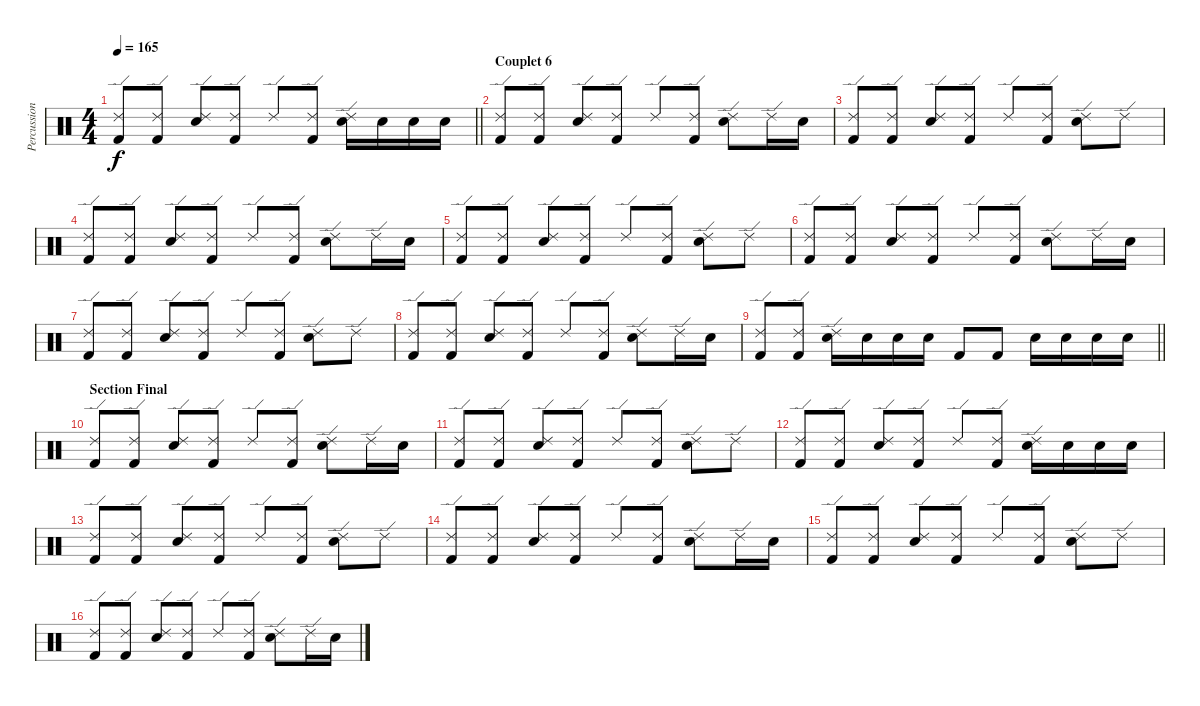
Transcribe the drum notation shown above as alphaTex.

\track ("Percussions" "Percussion") {instrument percussion}
\staff
\articulation defaults
\ts (4 4)
\tempo 165
\clef neutral
\barLineRight lightlight
\ks c
("Ride (edge) 2" "Kick (hit) 2").8{dy f} ("Ride (edge) 2" "Kick (hit) 2").8 ("Ride (edge) 2" "Electric Snare (hit)").8 ("Ride (edge) 2" "Kick (hit) 2").8 "Ride (edge) 2".8 ("Ride (edge) 2" "Kick (hit) 2").8 ("Ride (edge) 2" "Electric Snare (hit)").16 "Electric Snare (hit)".16 "Electric Snare (hit)".16 "Electric Snare (hit)".16 |
\section ("" "Couplet 6")
("Ride (edge) 2" "Kick (hit) 2").8 ("Ride (edge) 2" "Kick (hit) 2").8 ("Ride (edge) 2" "Electric Snare (hit)").8 ("Ride (edge) 2" "Kick (hit) 2").8 "Ride (edge) 2".8 ("Ride (edge) 2" "Kick (hit) 2").8 ("Ride (edge) 2" "Electric Snare (hit)").8 "Ride (edge) 2".16 "Electric Snare (hit)".16 |
("Ride (edge) 2" "Kick (hit) 2").8 ("Ride (edge) 2" "Kick (hit) 2").8 ("Ride (edge) 2" "Electric Snare (hit)").8 ("Ride (edge) 2" "Kick (hit) 2").8 "Ride (edge) 2".8 ("Ride (edge) 2" "Kick (hit) 2").8 ("Ride (edge) 2" "Electric Snare (hit)").8 "Ride (edge) 2".8 |
("Ride (edge) 2" "Kick (hit) 2").8 ("Ride (edge) 2" "Kick (hit) 2").8 ("Ride (edge) 2" "Electric Snare (hit)").8 ("Ride (edge) 2" "Kick (hit) 2").8 "Ride (edge) 2".8 ("Ride (edge) 2" "Kick (hit) 2").8 ("Ride (edge) 2" "Electric Snare (hit)").8 "Ride (edge) 2".16 "Electric Snare (hit)".16 |
("Ride (edge) 2" "Kick (hit) 2").8 ("Ride (edge) 2" "Kick (hit) 2").8 ("Ride (edge) 2" "Electric Snare (hit)").8 ("Ride (edge) 2" "Kick (hit) 2").8 "Ride (edge) 2".8 ("Ride (edge) 2" "Kick (hit) 2").8 ("Ride (edge) 2" "Electric Snare (hit)").8 "Ride (edge) 2".8 |
("Ride (edge) 2" "Kick (hit) 2").8 ("Ride (edge) 2" "Kick (hit) 2").8 ("Ride (edge) 2" "Electric Snare (hit)").8 ("Ride (edge) 2" "Kick (hit) 2").8 "Ride (edge) 2".8 ("Ride (edge) 2" "Kick (hit) 2").8 ("Ride (edge) 2" "Electric Snare (hit)").8 "Ride (edge) 2".16 "Electric Snare (hit)".16 |
("Ride (edge) 2" "Kick (hit) 2").8 ("Ride (edge) 2" "Kick (hit) 2").8 ("Ride (edge) 2" "Electric Snare (hit)").8 ("Ride (edge) 2" "Kick (hit) 2").8 "Ride (edge) 2".8 ("Ride (edge) 2" "Kick (hit) 2").8 ("Ride (edge) 2" "Electric Snare (hit)").8 "Ride (edge) 2".8 |
("Ride (edge) 2" "Kick (hit) 2").8 ("Ride (edge) 2" "Kick (hit) 2").8 ("Ride (edge) 2" "Electric Snare (hit)").8 ("Ride (edge) 2" "Kick (hit) 2").8 "Ride (edge) 2".8 ("Ride (edge) 2" "Kick (hit) 2").8 ("Ride (edge) 2" "Electric Snare (hit)").8 "Ride (edge) 2".16 "Electric Snare (hit)".16 |
\barLineRight lightlight
("Ride (edge) 2" "Kick (hit) 2").8 ("Ride (edge) 2" "Kick (hit) 2").8 ("Ride (edge) 2" "Electric Snare (hit)").16 "Electric Snare (hit)".16 "Electric Snare (hit)".16 "Electric Snare (hit)".16 "Kick (hit) 2".8 "Kick (hit) 2".8 "Electric Snare (hit)".16 "Electric Snare (hit)".16 "Electric Snare (hit)".16 "Electric Snare (hit)".16 |
\section ("" "Section Final")
("Ride (edge) 2" "Kick (hit) 2").8 ("Ride (edge) 2" "Kick (hit) 2").8 ("Ride (edge) 2" "Electric Snare (hit)").8 ("Ride (edge) 2" "Kick (hit) 2").8 "Ride (edge) 2".8 ("Ride (edge) 2" "Kick (hit) 2").8 ("Ride (edge) 2" "Electric Snare (hit)").8 "Ride (edge) 2".16 "Electric Snare (hit)".16 |
("Ride (edge) 2" "Kick (hit) 2").8 ("Ride (edge) 2" "Kick (hit) 2").8 ("Ride (edge) 2" "Electric Snare (hit)").8 ("Ride (edge) 2" "Kick (hit) 2").8 "Ride (edge) 2".8 ("Ride (edge) 2" "Kick (hit) 2").8 ("Ride (edge) 2" "Electric Snare (hit)").8 "Ride (edge) 2".8 |
("Ride (edge) 2" "Kick (hit) 2").8 ("Ride (edge) 2" "Kick (hit) 2").8 ("Ride (edge) 2" "Electric Snare (hit)").8 ("Ride (edge) 2" "Kick (hit) 2").8 "Ride (edge) 2".8 ("Ride (edge) 2" "Kick (hit) 2").8 ("Ride (edge) 2" "Electric Snare (hit)").16 "Electric Snare (hit)".16 "Electric Snare (hit)".16 "Electric Snare (hit)".16 |
("Ride (edge) 2" "Kick (hit) 2").8 ("Ride (edge) 2" "Kick (hit) 2").8 ("Ride (edge) 2" "Electric Snare (hit)").8 ("Ride (edge) 2" "Kick (hit) 2").8 "Ride (edge) 2".8 ("Ride (edge) 2" "Kick (hit) 2").8 ("Ride (edge) 2" "Electric Snare (hit)").8 "Ride (edge) 2".8 |
("Ride (edge) 2" "Kick (hit) 2").8 ("Ride (edge) 2" "Kick (hit) 2").8 ("Ride (edge) 2" "Electric Snare (hit)").8 ("Ride (edge) 2" "Kick (hit) 2").8 "Ride (edge) 2".8 ("Ride (edge) 2" "Kick (hit) 2").8 ("Ride (edge) 2" "Electric Snare (hit)").8 "Ride (edge) 2".16 "Electric Snare (hit)".16 |
("Ride (edge) 2" "Kick (hit) 2").8 ("Ride (edge) 2" "Kick (hit) 2").8 ("Ride (edge) 2" "Electric Snare (hit)").8 ("Ride (edge) 2" "Kick (hit) 2").8 "Ride (edge) 2".8 ("Ride (edge) 2" "Kick (hit) 2").8 ("Ride (edge) 2" "Electric Snare (hit)").8 "Ride (edge) 2".8 |
("Ride (edge) 2" "Kick (hit) 2").8 ("Ride (edge) 2" "Kick (hit) 2").8 ("Ride (edge) 2" "Electric Snare (hit)").8 ("Ride (edge) 2" "Kick (hit) 2").8 "Ride (edge) 2".8 ("Ride (edge) 2" "Kick (hit) 2").8 ("Ride (edge) 2" "Electric Snare (hit)").8 "Ride (edge) 2".16 "Electric Snare (hit)".16
